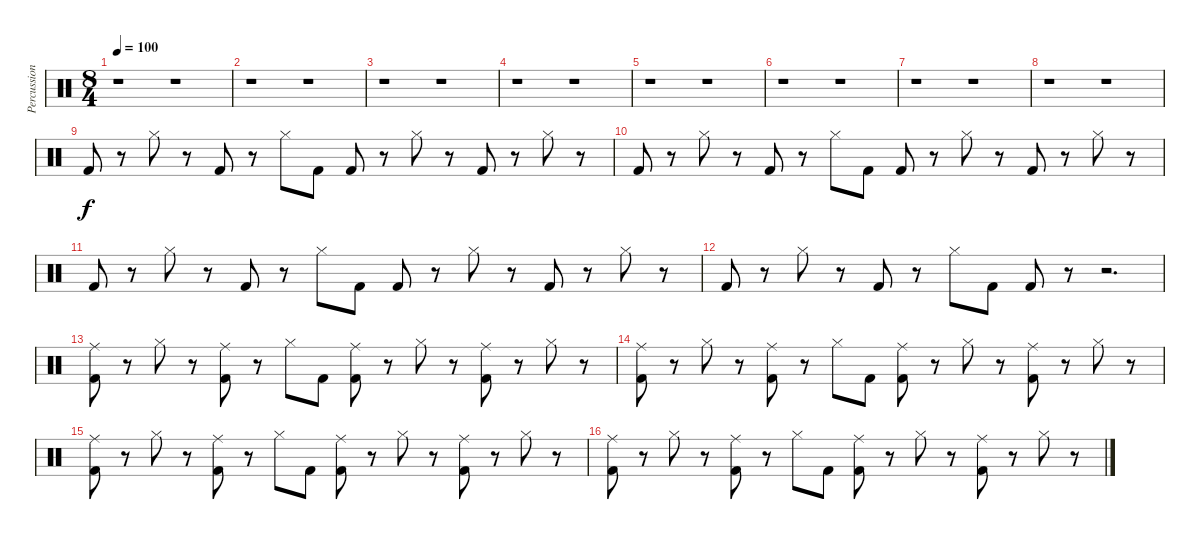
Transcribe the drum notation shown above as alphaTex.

\track ("Percussion" "Percussion") {instrument percussion}
\staff {score}
\articulation defaults
\ts (8 4)
\tempo 100
\clef neutral
\ks c
r.1{dy f} r.1 |
r.1 r.1 |
r.1 r.1 |
r.1 r.1 |
r.1 r.1 |
r.1 r.1 |
r.1 r.1 |
r.1 r.1 |
"Kick (hit) 2".8 r.8 "Hi-Hat (closed)".8 r.8 "Kick (hit) 2".8 r.8 "Hi-Hat (closed)".8 "Kick (hit) 2".8 "Kick (hit) 2".8 r.8 "Hi-Hat (closed)".8 r.8 "Kick (hit) 2".8 r.8 "Hi-Hat (closed)".8 r.8 |
"Kick (hit) 2".8 r.8 "Hi-Hat (closed)".8 r.8 "Kick (hit) 2".8 r.8 "Hi-Hat (closed)".8 "Kick (hit) 2".8 "Kick (hit) 2".8 r.8 "Hi-Hat (closed)".8 r.8 "Kick (hit) 2".8 r.8 "Hi-Hat (closed)".8 r.8 |
"Kick (hit) 2".8 r.8 "Hi-Hat (closed)".8 r.8 "Kick (hit) 2".8 r.8 "Hi-Hat (closed)".8 "Kick (hit) 2".8 "Kick (hit) 2".8 r.8 "Hi-Hat (closed)".8 r.8 "Kick (hit) 2".8 r.8 "Hi-Hat (closed)".8 r.8 |
"Kick (hit) 2".8 r.8 "Hi-Hat (closed)".8 r.8 "Kick (hit) 2".8 r.8 "Hi-Hat (closed)".8 "Kick (hit) 2".8 "Kick (hit) 2".8 r.8 r.2{d} |
("Ride (middle)" "Kick (hit) 2").8 r.8 "Hi-Hat (closed)".8 r.8 ("Ride (middle)" "Kick (hit) 2").8 r.8 "Hi-Hat (closed)".8 "Kick (hit) 2".8 ("Ride (middle)" "Kick (hit) 2").8 r.8 "Hi-Hat (closed)".8 r.8 ("Ride (middle)" "Kick (hit) 2").8 r.8 "Hi-Hat (closed)".8 r.8 |
("Ride (middle)" "Kick (hit) 2").8 r.8 "Hi-Hat (closed)".8 r.8 ("Ride (middle)" "Kick (hit) 2").8 r.8 "Hi-Hat (closed)".8 "Kick (hit) 2".8 ("Ride (middle)" "Kick (hit) 2").8 r.8 "Hi-Hat (closed)".8 r.8 ("Ride (middle)" "Kick (hit) 2").8 r.8 "Hi-Hat (closed)".8 r.8 |
("Ride (middle)" "Kick (hit) 2").8 r.8 "Hi-Hat (closed)".8 r.8 ("Ride (middle)" "Kick (hit) 2").8 r.8 "Hi-Hat (closed)".8 "Kick (hit) 2".8 ("Ride (middle)" "Kick (hit) 2").8 r.8 "Hi-Hat (closed)".8 r.8 ("Ride (middle)" "Kick (hit) 2").8 r.8 "Hi-Hat (closed)".8 r.8 |
("Ride (middle)" "Kick (hit) 2").8 r.8 "Hi-Hat (closed)".8 r.8 ("Ride (middle)" "Kick (hit) 2").8 r.8 "Hi-Hat (closed)".8 "Kick (hit) 2".8 ("Ride (middle)" "Kick (hit) 2").8 r.8 "Hi-Hat (closed)".8 r.8 ("Ride (middle)" "Kick (hit) 2").8 r.8 "Hi-Hat (closed)".8 r.8
